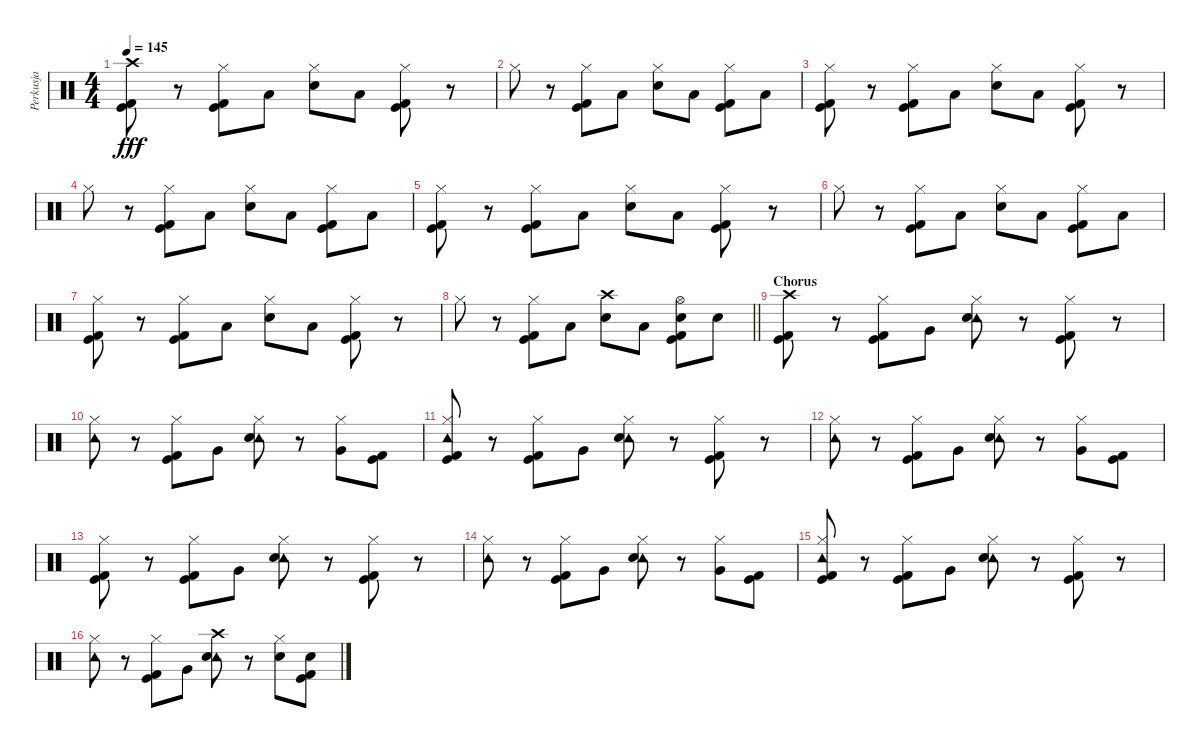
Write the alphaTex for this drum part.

\track ("Perkusja" "Perkusja") {instrument percussion}
\staff {score}
\articulation defaults
\ts (4 4)
\tempo 145
\clef neutral
\ks c
("Crash high (hit)" "Kick (hit)" "Kick (hit) 2").8{dy fff} r.8 ("Hi-Hat (closed)" "Kick (hit)" "Kick (hit) 2").8 "Low Floor Tom (hit)".8 ("Hi-Hat (closed)" "Electric Snare (hit)").8 "Low Floor Tom (hit)".8 ("Hi-Hat (closed)" "Kick (hit)" "Kick (hit) 2").8 r.8 |
"Hi-Hat (closed)".8 r.8 ("Hi-Hat (closed)" "Kick (hit)" "Kick (hit) 2").8 "Low Floor Tom (hit)".8 ("Hi-Hat (closed)" "Electric Snare (hit)").8 "Low Floor Tom (hit)".8 ("Hi-Hat (closed)" "Kick (hit)" "Kick (hit) 2").8 "Low Floor Tom (hit)".8 |
("Hi-Hat (closed)" "Kick (hit)" "Kick (hit) 2").8 r.8 ("Hi-Hat (closed)" "Kick (hit)" "Kick (hit) 2").8 "Low Floor Tom (hit)".8 ("Hi-Hat (closed)" "Electric Snare (hit)").8 "Low Floor Tom (hit)".8 ("Hi-Hat (closed)" "Kick (hit)" "Kick (hit) 2").8 r.8 |
"Hi-Hat (closed)".8 r.8 ("Hi-Hat (closed)" "Kick (hit)" "Kick (hit) 2").8 "Low Floor Tom (hit)".8 ("Hi-Hat (closed)" "Electric Snare (hit)").8 "Low Floor Tom (hit)".8 ("Hi-Hat (closed)" "Kick (hit)" "Kick (hit) 2").8 "Low Floor Tom (hit)".8 |
("Hi-Hat (closed)" "Kick (hit)" "Kick (hit) 2").8 r.8 ("Hi-Hat (closed)" "Kick (hit)" "Kick (hit) 2").8 "Low Floor Tom (hit)".8 ("Hi-Hat (closed)" "Electric Snare (hit)").8 "Low Floor Tom (hit)".8 ("Hi-Hat (closed)" "Kick (hit)" "Kick (hit) 2").8 r.8 |
"Hi-Hat (closed)".8 r.8 ("Hi-Hat (closed)" "Kick (hit)" "Kick (hit) 2").8 "Low Floor Tom (hit)".8 ("Hi-Hat (closed)" "Electric Snare (hit)").8 "Low Floor Tom (hit)".8 ("Hi-Hat (closed)" "Kick (hit)" "Kick (hit) 2").8 "Low Floor Tom (hit)".8 |
("Hi-Hat (closed)" "Kick (hit)" "Kick (hit) 2").8 r.8 ("Hi-Hat (closed)" "Kick (hit)" "Kick (hit) 2").8 "Low Floor Tom (hit)".8 ("Hi-Hat (closed)" "Electric Snare (hit)").8 "Low Floor Tom (hit)".8 ("Hi-Hat (closed)" "Kick (hit)" "Kick (hit) 2").8 r.8 |
\barLineRight lightlight "Hi-Hat (closed)".8
r.8 ("Hi-Hat (closed)" "Kick (hit)" "Kick (hit) 2").8 "Low Floor Tom (hit)".8 ("Crash high (hit)" "Electric Snare (hit)").8 "Low Floor Tom (hit)".8 ("Hi-Hat (open)" "Electric Snare (hit)" "Kick (hit)" "Kick (hit) 2").8 "Electric Snare (hit)".8 |
\section ("" "Chorus")
("Crash high (hit)" "Kick (hit)" "Kick (hit) 2").8 r.8 ("Hi-Hat (closed)" "Kick (hit)" "Kick (hit) 2").8 "Very Low Tom (hit)".8 ("Hi-Hat (closed)" "Tambourine (hit)" "Electric Snare (hit)").8 r.8 ("Hi-Hat (closed)" "Kick (hit)" "Kick (hit) 2").8 r.8 |
("Hi-Hat (closed)" "Tambourine (hit)").8 r.8 ("Hi-Hat (closed)" "Kick (hit)" "Kick (hit) 2").8 "Very Low Tom (hit)".8 ("Hi-Hat (closed)" "Tambourine (hit)" "Electric Snare (hit)").8 r.8 ("Hi-Hat (closed)" "Very Low Tom (hit)").8 ("Kick (hit)" "Kick (hit) 2").8 |
("Hi-Hat (closed)" "Tambourine (hit)" "Kick (hit)" "Kick (hit) 2").8 r.8 ("Hi-Hat (closed)" "Kick (hit)" "Kick (hit) 2").8 "Very Low Tom (hit)".8 ("Hi-Hat (closed)" "Tambourine (hit)" "Electric Snare (hit)").8 r.8 ("Hi-Hat (closed)" "Kick (hit)" "Kick (hit) 2").8 r.8 |
("Hi-Hat (closed)" "Tambourine (hit)").8 r.8 ("Hi-Hat (closed)" "Kick (hit)" "Kick (hit) 2").8 "Very Low Tom (hit)".8 ("Hi-Hat (closed)" "Tambourine (hit)" "Electric Snare (hit)").8 r.8 ("Hi-Hat (closed)" "Very Low Tom (hit)").8 ("Kick (hit)" "Kick (hit) 2").8 |
("Hi-Hat (closed)" "Kick (hit)" "Kick (hit) 2").8 r.8 ("Hi-Hat (closed)" "Kick (hit)" "Kick (hit) 2").8 "Very Low Tom (hit)".8 ("Hi-Hat (closed)" "Tambourine (hit)" "Electric Snare (hit)").8 r.8 ("Hi-Hat (closed)" "Kick (hit)" "Kick (hit) 2").8 r.8 |
("Hi-Hat (closed)" "Tambourine (hit)").8 r.8 ("Hi-Hat (closed)" "Kick (hit)" "Kick (hit) 2").8 "Very Low Tom (hit)".8 ("Hi-Hat (closed)" "Tambourine (hit)" "Electric Snare (hit)").8 r.8 ("Hi-Hat (closed)" "Very Low Tom (hit)").8 ("Kick (hit)" "Kick (hit) 2").8 |
("Hi-Hat (closed)" "Tambourine (hit)" "Kick (hit)" "Kick (hit) 2").8 r.8 ("Hi-Hat (closed)" "Kick (hit)" "Kick (hit) 2").8 "Very Low Tom (hit)".8 ("Hi-Hat (closed)" "Tambourine (hit)" "Electric Snare (hit)").8 r.8 ("Hi-Hat (closed)" "Kick (hit)" "Kick (hit) 2").8 r.8 |
("Hi-Hat (closed)" "Tambourine (hit)").8 r.8 ("Hi-Hat (closed)" "Kick (hit)" "Kick (hit) 2").8 "Very Low Tom (hit)".8 ("Crash high (hit)" "Tambourine (hit)" "Electric Snare (hit)").8 r.8 ("Hi-Hat (closed)" "Electric Snare (hit)").8 ("Electric Snare (hit)" "Kick (hit)" "Kick (hit) 2").8
